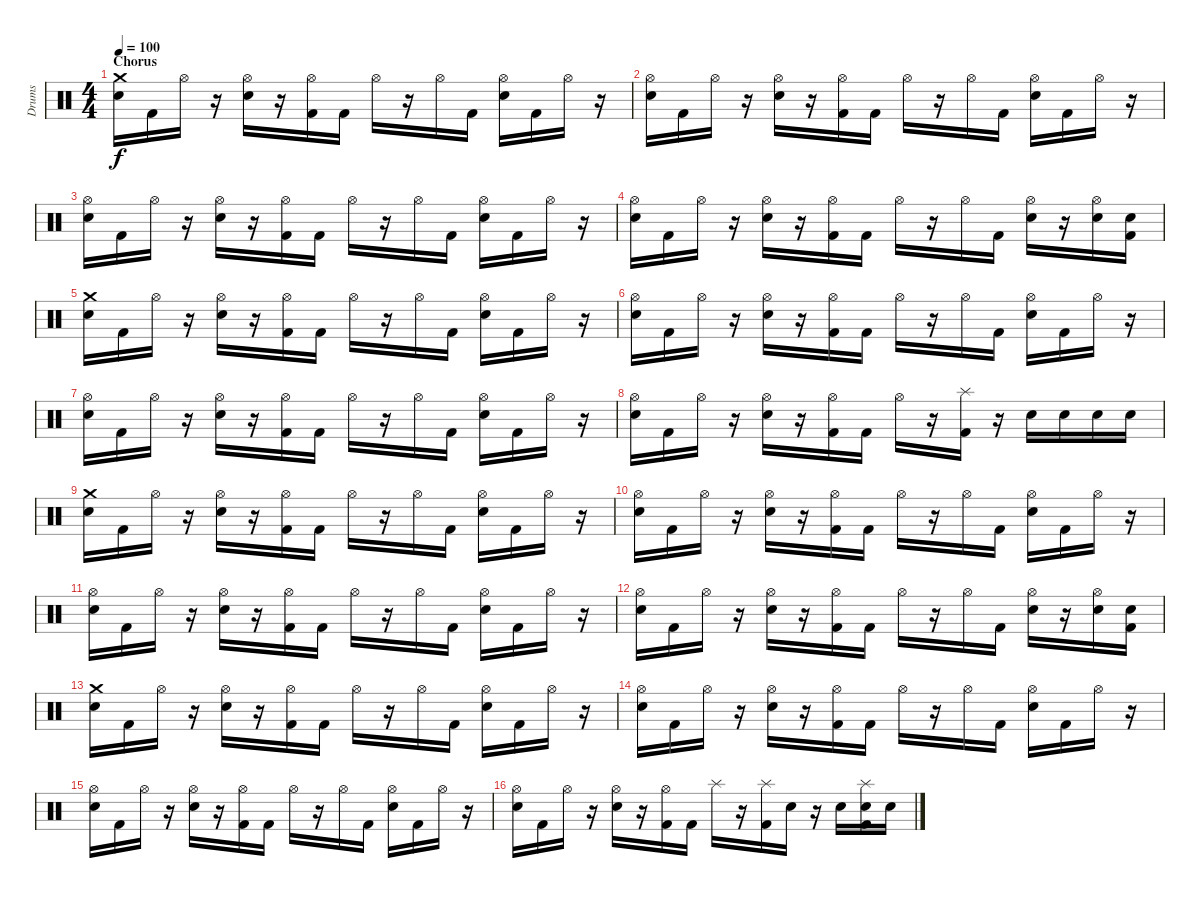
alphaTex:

\track ("Drums" "Drums") {instrument percussion}
\staff {score}
\articulation defaults
\ts (4 4)
\section ("" "Chorus")
\tempo 100
\clef neutral
\ks c
("Crash medium (hit)" "Snare (hit) 2").16{dy f} "Kick (hit) 2".16 "Hi-Hat (open)".16 r.16 ("Hi-Hat (open)" "Snare (hit) 2").16 r.16 ("Hi-Hat (open)" "Kick (hit) 2").16 "Kick (hit) 2".16 "Hi-Hat (open)".16 r.16 "Hi-Hat (open)".16 "Kick (hit) 2".16 ("Hi-Hat (open)" "Snare (hit) 2").16 "Kick (hit) 2".16 "Hi-Hat (open)".16 r.16 |
("Hi-Hat (open)" "Snare (hit) 2").16 "Kick (hit) 2".16 "Hi-Hat (open)".16 r.16 ("Hi-Hat (open)" "Snare (hit) 2").16 r.16 ("Hi-Hat (open)" "Kick (hit) 2").16 "Kick (hit) 2".16 "Hi-Hat (open)".16 r.16 "Hi-Hat (open)".16 "Kick (hit) 2".16 ("Hi-Hat (open)" "Snare (hit) 2").16 "Kick (hit) 2".16 "Hi-Hat (open)".16 r.16 |
("Hi-Hat (open)" "Snare (hit) 2").16 "Kick (hit) 2".16 "Hi-Hat (open)".16 r.16 ("Hi-Hat (open)" "Snare (hit) 2").16 r.16 ("Hi-Hat (open)" "Kick (hit) 2").16 "Kick (hit) 2".16 "Hi-Hat (open)".16 r.16 "Hi-Hat (open)".16 "Kick (hit) 2".16 ("Hi-Hat (open)" "Snare (hit) 2").16 "Kick (hit) 2".16 "Hi-Hat (open)".16 r.16 |
("Hi-Hat (open)" "Snare (hit) 2").16 "Kick (hit) 2".16 "Hi-Hat (open)".16 r.16 ("Hi-Hat (open)" "Snare (hit) 2").16 r.16 ("Hi-Hat (open)" "Kick (hit) 2").16 "Kick (hit) 2".16 "Hi-Hat (open)".16 r.16 "Hi-Hat (open)".16 "Kick (hit) 2".16 ("Hi-Hat (open)" "Snare (hit) 2").16 r.16 ("Hi-Hat (open)" "Snare (hit) 2").16 ("Snare (hit) 2" "Kick (hit) 2").16 |
("Crash medium (hit)" "Snare (hit) 2").16 "Kick (hit) 2".16 "Hi-Hat (open)".16 r.16 ("Hi-Hat (open)" "Snare (hit) 2").16 r.16 ("Hi-Hat (open)" "Kick (hit) 2").16 "Kick (hit) 2".16 "Hi-Hat (open)".16 r.16 "Hi-Hat (open)".16 "Kick (hit) 2".16 ("Hi-Hat (open)" "Snare (hit) 2").16 "Kick (hit) 2".16 "Hi-Hat (open)".16 r.16 |
("Hi-Hat (open)" "Snare (hit) 2").16 "Kick (hit) 2".16 "Hi-Hat (open)".16 r.16 ("Hi-Hat (open)" "Snare (hit) 2").16 r.16 ("Hi-Hat (open)" "Kick (hit) 2").16 "Kick (hit) 2".16 "Hi-Hat (open)".16 r.16 "Hi-Hat (open)".16 "Kick (hit) 2".16 ("Hi-Hat (open)" "Snare (hit) 2").16 "Kick (hit) 2".16 "Hi-Hat (open)".16 r.16 |
("Hi-Hat (open)" "Snare (hit) 2").16 "Kick (hit) 2".16 "Hi-Hat (open)".16 r.16 ("Hi-Hat (open)" "Snare (hit) 2").16 r.16 ("Hi-Hat (open)" "Kick (hit) 2").16 "Kick (hit) 2".16 "Hi-Hat (open)".16 r.16 "Hi-Hat (open)".16 "Kick (hit) 2".16 ("Hi-Hat (open)" "Snare (hit) 2").16 "Kick (hit) 2".16 "Hi-Hat (open)".16 r.16 |
("Hi-Hat (open)" "Snare (hit) 2").16 "Kick (hit) 2".16 "Hi-Hat (open)".16 r.16 ("Hi-Hat (open)" "Snare (hit) 2").16 r.16 ("Hi-Hat (open)" "Kick (hit) 2").16 "Kick (hit) 2".16 "Hi-Hat (open)".16 r.16 ("Splash (hit)" "Kick (hit) 2").16 r.16 "Snare (hit) 2".16 "Snare (hit) 2".16 "Snare (hit) 2".16 "Snare (hit) 2".16 |
("Crash medium (hit)" "Snare (hit) 2").16 "Kick (hit) 2".16 "Hi-Hat (open)".16 r.16 ("Hi-Hat (open)" "Snare (hit) 2").16 r.16 ("Hi-Hat (open)" "Kick (hit) 2").16 "Kick (hit) 2".16 "Hi-Hat (open)".16 r.16 "Hi-Hat (open)".16 "Kick (hit) 2".16 ("Hi-Hat (open)" "Snare (hit) 2").16 "Kick (hit) 2".16 "Hi-Hat (open)".16 r.16 |
("Hi-Hat (open)" "Snare (hit) 2").16 "Kick (hit) 2".16 "Hi-Hat (open)".16 r.16 ("Hi-Hat (open)" "Snare (hit) 2").16 r.16 ("Hi-Hat (open)" "Kick (hit) 2").16 "Kick (hit) 2".16 "Hi-Hat (open)".16 r.16 "Hi-Hat (open)".16 "Kick (hit) 2".16 ("Hi-Hat (open)" "Snare (hit) 2").16 "Kick (hit) 2".16 "Hi-Hat (open)".16 r.16 |
("Hi-Hat (open)" "Snare (hit) 2").16 "Kick (hit) 2".16 "Hi-Hat (open)".16 r.16 ("Hi-Hat (open)" "Snare (hit) 2").16 r.16 ("Hi-Hat (open)" "Kick (hit) 2").16 "Kick (hit) 2".16 "Hi-Hat (open)".16 r.16 "Hi-Hat (open)".16 "Kick (hit) 2".16 ("Hi-Hat (open)" "Snare (hit) 2").16 "Kick (hit) 2".16 "Hi-Hat (open)".16 r.16 |
("Hi-Hat (open)" "Snare (hit) 2").16 "Kick (hit) 2".16 "Hi-Hat (open)".16 r.16 ("Hi-Hat (open)" "Snare (hit) 2").16 r.16 ("Hi-Hat (open)" "Kick (hit) 2").16 "Kick (hit) 2".16 "Hi-Hat (open)".16 r.16 "Hi-Hat (open)".16 "Kick (hit) 2".16 ("Hi-Hat (open)" "Snare (hit) 2").16 r.16 ("Hi-Hat (open)" "Snare (hit) 2").16 ("Snare (hit) 2" "Kick (hit) 2").16 |
("Crash medium (hit)" "Snare (hit) 2").16 "Kick (hit) 2".16 "Hi-Hat (open)".16 r.16 ("Hi-Hat (open)" "Snare (hit) 2").16 r.16 ("Hi-Hat (open)" "Kick (hit) 2").16 "Kick (hit) 2".16 "Hi-Hat (open)".16 r.16 "Hi-Hat (open)".16 "Kick (hit) 2".16 ("Hi-Hat (open)" "Snare (hit) 2").16 "Kick (hit) 2".16 "Hi-Hat (open)".16 r.16 |
("Hi-Hat (open)" "Snare (hit) 2").16 "Kick (hit) 2".16 "Hi-Hat (open)".16 r.16 ("Hi-Hat (open)" "Snare (hit) 2").16 r.16 ("Hi-Hat (open)" "Kick (hit) 2").16 "Kick (hit) 2".16 "Hi-Hat (open)".16 r.16 "Hi-Hat (open)".16 "Kick (hit) 2".16 ("Hi-Hat (open)" "Snare (hit) 2").16 "Kick (hit) 2".16 "Hi-Hat (open)".16 r.16 |
("Hi-Hat (open)" "Snare (hit) 2").16 "Kick (hit) 2".16 "Hi-Hat (open)".16 r.16 ("Hi-Hat (open)" "Snare (hit) 2").16 r.16 ("Hi-Hat (open)" "Kick (hit) 2").16 "Kick (hit) 2".16 "Hi-Hat (open)".16 r.16 "Hi-Hat (open)".16 "Kick (hit) 2".16 ("Hi-Hat (open)" "Snare (hit) 2").16 "Kick (hit) 2".16 "Hi-Hat (open)".16 r.16 |
("Hi-Hat (open)" "Snare (hit) 2").16 "Kick (hit) 2".16 "Hi-Hat (open)".16 r.16 ("Hi-Hat (open)" "Snare (hit) 2").16 r.16 ("Hi-Hat (open)" "Kick (hit) 2").16 "Kick (hit) 2".16 "Splash (hit)".16 r.16 ("Splash (hit)" "Kick (hit) 2").16 "Snare (hit) 2".16 r.16 "Snare (hit) 2".16 ("Splash (hit)" "Snare (hit) 2" "Kick (hit) 2").16 "Snare (hit) 2".16
